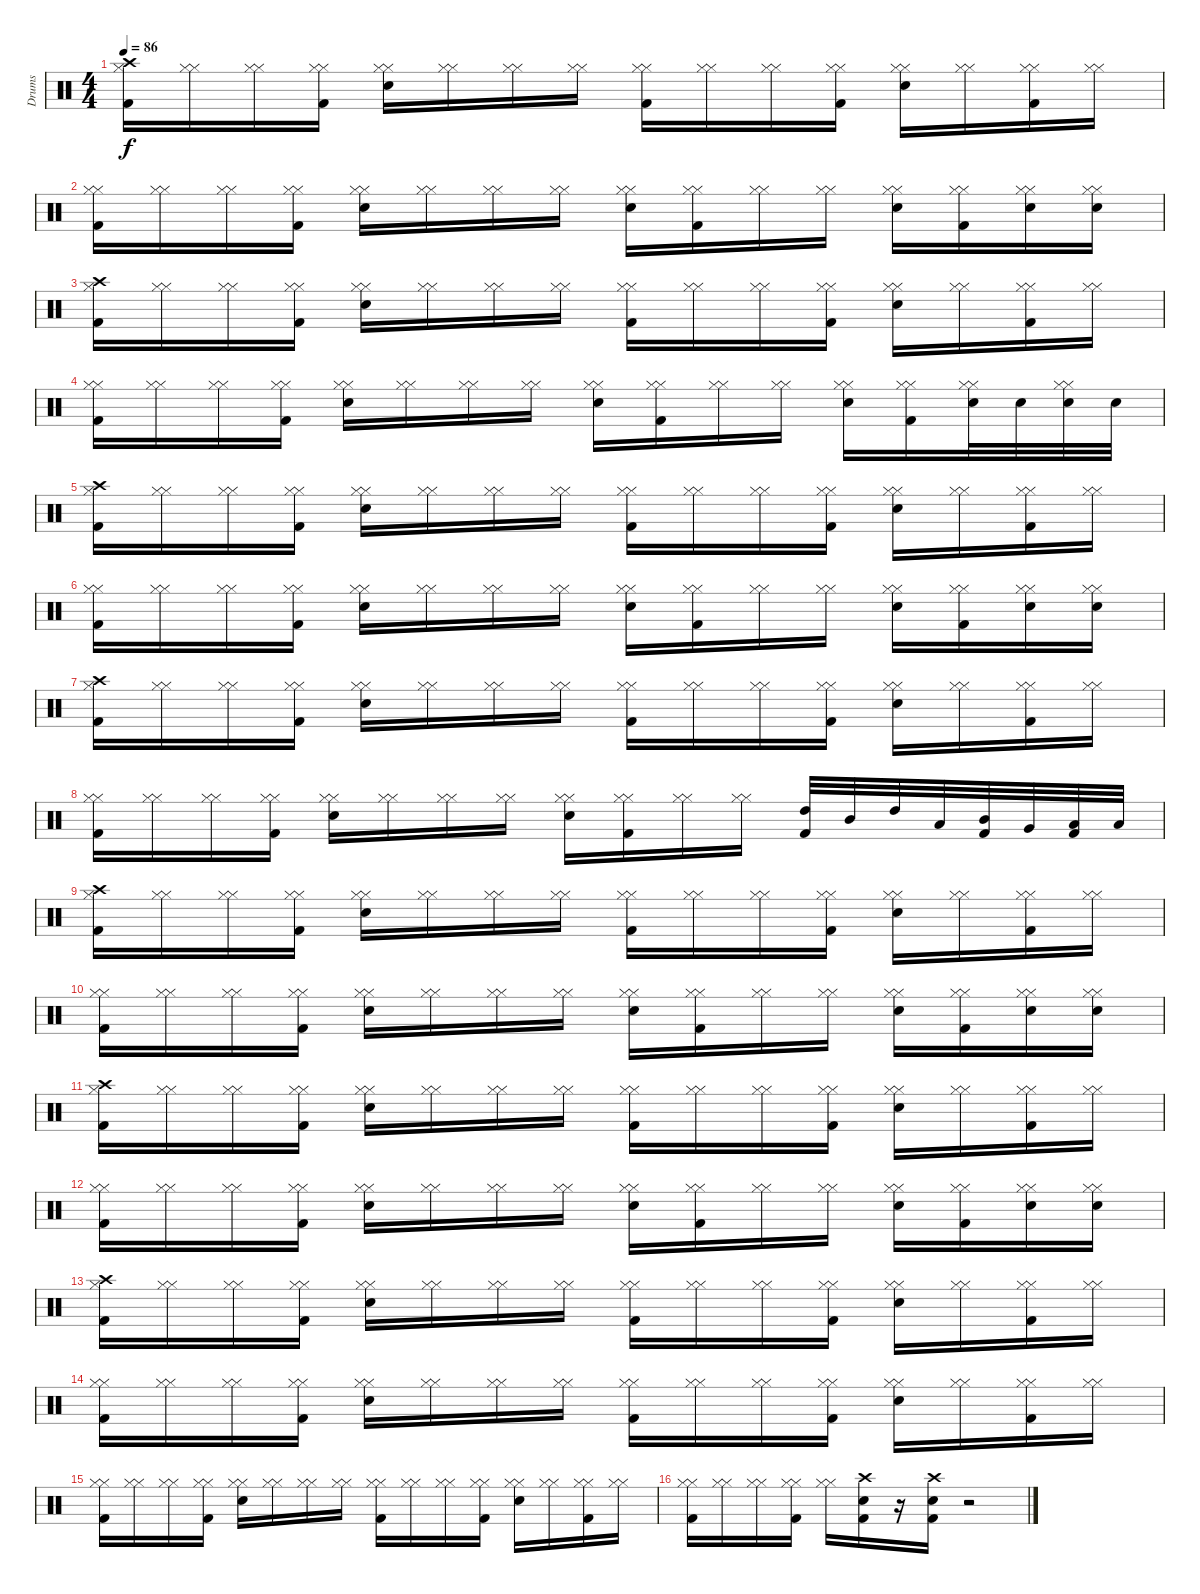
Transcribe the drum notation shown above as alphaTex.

\track ("Drums" "Drums") {instrument percussion}
\staff {score}
\articulation defaults
\ts (4 4)
\tempo 86
\clef neutral
\ks c
("Crash high (hit)" "Hi-Hat (closed)" "Kick (hit) 2").16{dy f} ("Hi-Hat (closed)" "Hi-Hat (closed)").16 ("Hi-Hat (closed)" "Hi-Hat (closed)").16 ("Hi-Hat (closed)" "Hi-Hat (closed)" "Kick (hit) 2").16 ("Hi-Hat (closed)" "Hi-Hat (closed)" "Electric Snare (hit)").16 ("Hi-Hat (closed)" "Hi-Hat (closed)").16 ("Hi-Hat (closed)" "Hi-Hat (closed)").16 ("Hi-Hat (closed)" "Hi-Hat (closed)").16 ("Hi-Hat (closed)" "Hi-Hat (closed)" "Kick (hit) 2").16 ("Hi-Hat (closed)" "Hi-Hat (closed)").16 ("Hi-Hat (closed)" "Hi-Hat (closed)").16 ("Hi-Hat (closed)" "Hi-Hat (closed)" "Kick (hit) 2").16 ("Hi-Hat (closed)" "Hi-Hat (closed)" "Electric Snare (hit)").16 ("Hi-Hat (closed)" "Hi-Hat (closed)").16 ("Hi-Hat (closed)" "Hi-Hat (closed)" "Kick (hit) 2").16 ("Hi-Hat (closed)" "Hi-Hat (closed)").16 |
("Hi-Hat (closed)" "Hi-Hat (closed)" "Kick (hit) 2").16 ("Hi-Hat (closed)" "Hi-Hat (closed)").16 ("Hi-Hat (closed)" "Hi-Hat (closed)").16 ("Hi-Hat (closed)" "Hi-Hat (closed)" "Kick (hit) 2").16 ("Hi-Hat (closed)" "Hi-Hat (closed)" "Electric Snare (hit)").16 ("Hi-Hat (closed)" "Hi-Hat (closed)").16 ("Hi-Hat (closed)" "Hi-Hat (closed)").16 ("Hi-Hat (closed)" "Hi-Hat (closed)").16 ("Hi-Hat (closed)" "Hi-Hat (closed)" "Electric Snare (hit)").16 ("Hi-Hat (closed)" "Hi-Hat (closed)" "Kick (hit) 2").16 ("Hi-Hat (closed)" "Hi-Hat (closed)").16 ("Hi-Hat (closed)" "Hi-Hat (closed)").16 ("Hi-Hat (closed)" "Hi-Hat (closed)" "Electric Snare (hit)").16 ("Hi-Hat (closed)" "Hi-Hat (closed)" "Kick (hit) 2").16 ("Hi-Hat (closed)" "Hi-Hat (closed)" "Electric Snare (hit)").16 ("Hi-Hat (closed)" "Hi-Hat (closed)" "Electric Snare (hit)").16 |
("Crash high (hit)" "Hi-Hat (closed)" "Kick (hit) 2").16 ("Hi-Hat (closed)" "Hi-Hat (closed)").16 ("Hi-Hat (closed)" "Hi-Hat (closed)").16 ("Hi-Hat (closed)" "Hi-Hat (closed)" "Kick (hit) 2").16 ("Hi-Hat (closed)" "Hi-Hat (closed)" "Electric Snare (hit)").16 ("Hi-Hat (closed)" "Hi-Hat (closed)").16 ("Hi-Hat (closed)" "Hi-Hat (closed)").16 ("Hi-Hat (closed)" "Hi-Hat (closed)").16 ("Hi-Hat (closed)" "Hi-Hat (closed)" "Kick (hit) 2").16 ("Hi-Hat (closed)" "Hi-Hat (closed)").16 ("Hi-Hat (closed)" "Hi-Hat (closed)").16 ("Hi-Hat (closed)" "Hi-Hat (closed)" "Kick (hit) 2").16 ("Hi-Hat (closed)" "Hi-Hat (closed)" "Electric Snare (hit)").16 ("Hi-Hat (closed)" "Hi-Hat (closed)").16 ("Hi-Hat (closed)" "Hi-Hat (closed)" "Kick (hit) 2").16 ("Hi-Hat (closed)" "Hi-Hat (closed)").16 |
("Hi-Hat (closed)" "Hi-Hat (closed)" "Kick (hit) 2").16 ("Hi-Hat (closed)" "Hi-Hat (closed)").16 ("Hi-Hat (closed)" "Hi-Hat (closed)").16 ("Hi-Hat (closed)" "Hi-Hat (closed)" "Kick (hit) 2").16 ("Hi-Hat (closed)" "Hi-Hat (closed)" "Electric Snare (hit)").16 ("Hi-Hat (closed)" "Hi-Hat (closed)").16 ("Hi-Hat (closed)" "Hi-Hat (closed)").16 ("Hi-Hat (closed)" "Hi-Hat (closed)").16 ("Hi-Hat (closed)" "Hi-Hat (closed)" "Electric Snare (hit)").16 ("Hi-Hat (closed)" "Hi-Hat (closed)" "Kick (hit) 2").16 ("Hi-Hat (closed)" "Hi-Hat (closed)").16 ("Hi-Hat (closed)" "Hi-Hat (closed)").16 ("Hi-Hat (closed)" "Hi-Hat (closed)" "Electric Snare (hit)").16 ("Hi-Hat (closed)" "Hi-Hat (closed)" "Kick (hit) 2").16 ("Hi-Hat (closed)" "Hi-Hat (closed)" "Electric Snare (hit)").32 "Electric Snare (hit)".32 ("Hi-Hat (closed)" "Hi-Hat (closed)" "Electric Snare (hit)").32 "Electric Snare (hit)".32 |
("Crash high (hit)" "Hi-Hat (closed)" "Kick (hit) 2").16 ("Hi-Hat (closed)" "Hi-Hat (closed)").16 ("Hi-Hat (closed)" "Hi-Hat (closed)").16 ("Hi-Hat (closed)" "Hi-Hat (closed)" "Kick (hit) 2").16 ("Hi-Hat (closed)" "Hi-Hat (closed)" "Electric Snare (hit)").16 ("Hi-Hat (closed)" "Hi-Hat (closed)").16 ("Hi-Hat (closed)" "Hi-Hat (closed)").16 ("Hi-Hat (closed)" "Hi-Hat (closed)").16 ("Hi-Hat (closed)" "Hi-Hat (closed)" "Kick (hit) 2").16 ("Hi-Hat (closed)" "Hi-Hat (closed)").16 ("Hi-Hat (closed)" "Hi-Hat (closed)").16 ("Hi-Hat (closed)" "Hi-Hat (closed)" "Kick (hit) 2").16 ("Hi-Hat (closed)" "Hi-Hat (closed)" "Electric Snare (hit)").16 ("Hi-Hat (closed)" "Hi-Hat (closed)").16 ("Hi-Hat (closed)" "Hi-Hat (closed)" "Kick (hit) 2").16 ("Hi-Hat (closed)" "Hi-Hat (closed)").16 |
("Hi-Hat (closed)" "Hi-Hat (closed)" "Kick (hit) 2").16 ("Hi-Hat (closed)" "Hi-Hat (closed)").16 ("Hi-Hat (closed)" "Hi-Hat (closed)").16 ("Hi-Hat (closed)" "Hi-Hat (closed)" "Kick (hit) 2").16 ("Hi-Hat (closed)" "Hi-Hat (closed)" "Electric Snare (hit)").16 ("Hi-Hat (closed)" "Hi-Hat (closed)").16 ("Hi-Hat (closed)" "Hi-Hat (closed)").16 ("Hi-Hat (closed)" "Hi-Hat (closed)").16 ("Hi-Hat (closed)" "Hi-Hat (closed)" "Electric Snare (hit)").16 ("Hi-Hat (closed)" "Hi-Hat (closed)" "Kick (hit) 2").16 ("Hi-Hat (closed)" "Hi-Hat (closed)").16 ("Hi-Hat (closed)" "Hi-Hat (closed)").16 ("Hi-Hat (closed)" "Hi-Hat (closed)" "Electric Snare (hit)").16 ("Hi-Hat (closed)" "Hi-Hat (closed)" "Kick (hit) 2").16 ("Hi-Hat (closed)" "Hi-Hat (closed)" "Electric Snare (hit)").16 ("Hi-Hat (closed)" "Hi-Hat (closed)" "Electric Snare (hit)").16 |
("Crash high (hit)" "Hi-Hat (closed)" "Kick (hit) 2").16 ("Hi-Hat (closed)" "Hi-Hat (closed)").16 ("Hi-Hat (closed)" "Hi-Hat (closed)").16 ("Hi-Hat (closed)" "Hi-Hat (closed)" "Kick (hit) 2").16 ("Hi-Hat (closed)" "Hi-Hat (closed)" "Electric Snare (hit)").16 ("Hi-Hat (closed)" "Hi-Hat (closed)").16 ("Hi-Hat (closed)" "Hi-Hat (closed)").16 ("Hi-Hat (closed)" "Hi-Hat (closed)").16 ("Hi-Hat (closed)" "Hi-Hat (closed)" "Kick (hit) 2").16 ("Hi-Hat (closed)" "Hi-Hat (closed)").16 ("Hi-Hat (closed)" "Hi-Hat (closed)").16 ("Hi-Hat (closed)" "Hi-Hat (closed)" "Kick (hit) 2").16 ("Hi-Hat (closed)" "Hi-Hat (closed)" "Electric Snare (hit)").16 ("Hi-Hat (closed)" "Hi-Hat (closed)").16 ("Hi-Hat (closed)" "Hi-Hat (closed)" "Kick (hit) 2").16 ("Hi-Hat (closed)" "Hi-Hat (closed)").16 |
("Hi-Hat (closed)" "Hi-Hat (closed)" "Kick (hit) 2").16 ("Hi-Hat (closed)" "Hi-Hat (closed)").16 ("Hi-Hat (closed)" "Hi-Hat (closed)").16 ("Hi-Hat (closed)" "Hi-Hat (closed)" "Kick (hit) 2").16 ("Hi-Hat (closed)" "Hi-Hat (closed)" "Electric Snare (hit)").16 ("Hi-Hat (closed)" "Hi-Hat (closed)").16 ("Hi-Hat (closed)" "Hi-Hat (closed)").16 ("Hi-Hat (closed)" "Hi-Hat (closed)").16 ("Hi-Hat (closed)" "Hi-Hat (closed)" "Electric Snare (hit)").16 ("Hi-Hat (closed)" "Hi-Hat (closed)" "Kick (hit) 2").16 ("Hi-Hat (closed)" "Hi-Hat (closed)").16 ("Hi-Hat (closed)" "Hi-Hat (closed)").16 ("High Tom (hit)" "Kick (hit) 2").32 "Mid Tom (hit)".32 "High Tom (hit)".32 "Low Tom (hit)".32 ("Mid Tom (hit)" "Kick (hit) 2").32 "Very Low Tom (hit)".32 ("Low Tom (hit)" "Kick (hit) 2").32 "Low Floor Tom (hit)".32 |
("Crash high (hit)" "Hi-Hat (closed)" "Kick (hit) 2").16 ("Hi-Hat (closed)" "Hi-Hat (closed)").16 ("Hi-Hat (closed)" "Hi-Hat (closed)").16 ("Hi-Hat (closed)" "Hi-Hat (closed)" "Kick (hit) 2").16 ("Hi-Hat (closed)" "Hi-Hat (closed)" "Electric Snare (hit)").16 ("Hi-Hat (closed)" "Hi-Hat (closed)").16 ("Hi-Hat (closed)" "Hi-Hat (closed)").16 ("Hi-Hat (closed)" "Hi-Hat (closed)").16 ("Hi-Hat (closed)" "Hi-Hat (closed)" "Kick (hit) 2").16 ("Hi-Hat (closed)" "Hi-Hat (closed)").16 ("Hi-Hat (closed)" "Hi-Hat (closed)").16 ("Hi-Hat (closed)" "Hi-Hat (closed)" "Kick (hit) 2").16 ("Hi-Hat (closed)" "Hi-Hat (closed)" "Electric Snare (hit)").16 ("Hi-Hat (closed)" "Hi-Hat (closed)").16 ("Hi-Hat (closed)" "Hi-Hat (closed)" "Kick (hit) 2").16 ("Hi-Hat (closed)" "Hi-Hat (closed)").16 |
("Hi-Hat (closed)" "Hi-Hat (closed)" "Kick (hit) 2").16 ("Hi-Hat (closed)" "Hi-Hat (closed)").16 ("Hi-Hat (closed)" "Hi-Hat (closed)").16 ("Hi-Hat (closed)" "Hi-Hat (closed)" "Kick (hit) 2").16 ("Hi-Hat (closed)" "Hi-Hat (closed)" "Electric Snare (hit)").16 ("Hi-Hat (closed)" "Hi-Hat (closed)").16 ("Hi-Hat (closed)" "Hi-Hat (closed)").16 ("Hi-Hat (closed)" "Hi-Hat (closed)").16 ("Hi-Hat (closed)" "Hi-Hat (closed)" "Electric Snare (hit)").16 ("Hi-Hat (closed)" "Hi-Hat (closed)" "Kick (hit) 2").16 ("Hi-Hat (closed)" "Hi-Hat (closed)").16 ("Hi-Hat (closed)" "Hi-Hat (closed)").16 ("Hi-Hat (closed)" "Hi-Hat (closed)" "Electric Snare (hit)").16 ("Hi-Hat (closed)" "Hi-Hat (closed)" "Kick (hit) 2").16 ("Hi-Hat (closed)" "Hi-Hat (closed)" "Electric Snare (hit)").16 ("Hi-Hat (closed)" "Hi-Hat (closed)" "Electric Snare (hit)").16 |
("Crash high (hit)" "Hi-Hat (closed)" "Kick (hit) 2").16 ("Hi-Hat (closed)" "Hi-Hat (closed)").16 ("Hi-Hat (closed)" "Hi-Hat (closed)").16 ("Hi-Hat (closed)" "Hi-Hat (closed)" "Kick (hit) 2").16 ("Hi-Hat (closed)" "Hi-Hat (closed)" "Electric Snare (hit)").16 ("Hi-Hat (closed)" "Hi-Hat (closed)").16 ("Hi-Hat (closed)" "Hi-Hat (closed)").16 ("Hi-Hat (closed)" "Hi-Hat (closed)").16 ("Hi-Hat (closed)" "Hi-Hat (closed)" "Kick (hit) 2").16 ("Hi-Hat (closed)" "Hi-Hat (closed)").16 ("Hi-Hat (closed)" "Hi-Hat (closed)").16 ("Hi-Hat (closed)" "Hi-Hat (closed)" "Kick (hit) 2").16 ("Hi-Hat (closed)" "Hi-Hat (closed)" "Electric Snare (hit)").16 ("Hi-Hat (closed)" "Hi-Hat (closed)").16 ("Hi-Hat (closed)" "Hi-Hat (closed)" "Kick (hit) 2").16 ("Hi-Hat (closed)" "Hi-Hat (closed)").16 |
("Hi-Hat (closed)" "Hi-Hat (closed)" "Kick (hit) 2").16 ("Hi-Hat (closed)" "Hi-Hat (closed)").16 ("Hi-Hat (closed)" "Hi-Hat (closed)").16 ("Hi-Hat (closed)" "Hi-Hat (closed)" "Kick (hit) 2").16 ("Hi-Hat (closed)" "Hi-Hat (closed)" "Electric Snare (hit)").16 ("Hi-Hat (closed)" "Hi-Hat (closed)").16 ("Hi-Hat (closed)" "Hi-Hat (closed)").16 ("Hi-Hat (closed)" "Hi-Hat (closed)").16 ("Hi-Hat (closed)" "Hi-Hat (closed)" "Electric Snare (hit)").16 ("Hi-Hat (closed)" "Hi-Hat (closed)" "Kick (hit) 2").16 ("Hi-Hat (closed)" "Hi-Hat (closed)").16 ("Hi-Hat (closed)" "Hi-Hat (closed)").16 ("Hi-Hat (closed)" "Hi-Hat (closed)" "Electric Snare (hit)").16 ("Hi-Hat (closed)" "Hi-Hat (closed)" "Kick (hit) 2").16 ("Hi-Hat (closed)" "Hi-Hat (closed)" "Electric Snare (hit)").16 ("Hi-Hat (closed)" "Hi-Hat (closed)" "Electric Snare (hit)").16 |
("Crash high (hit)" "Hi-Hat (closed)" "Kick (hit) 2").16 ("Hi-Hat (closed)" "Hi-Hat (closed)").16 ("Hi-Hat (closed)" "Hi-Hat (closed)").16 ("Hi-Hat (closed)" "Hi-Hat (closed)" "Kick (hit) 2").16 ("Hi-Hat (closed)" "Hi-Hat (closed)" "Electric Snare (hit)").16 ("Hi-Hat (closed)" "Hi-Hat (closed)").16 ("Hi-Hat (closed)" "Hi-Hat (closed)").16 ("Hi-Hat (closed)" "Hi-Hat (closed)").16 ("Hi-Hat (closed)" "Hi-Hat (closed)" "Kick (hit) 2").16 ("Hi-Hat (closed)" "Hi-Hat (closed)").16 ("Hi-Hat (closed)" "Hi-Hat (closed)").16 ("Hi-Hat (closed)" "Hi-Hat (closed)" "Kick (hit) 2").16 ("Hi-Hat (closed)" "Hi-Hat (closed)" "Electric Snare (hit)").16 ("Hi-Hat (closed)" "Hi-Hat (closed)").16 ("Hi-Hat (closed)" "Hi-Hat (closed)" "Kick (hit) 2").16 ("Hi-Hat (closed)" "Hi-Hat (closed)").16 |
("Hi-Hat (closed)" "Hi-Hat (closed)" "Kick (hit) 2").16 ("Hi-Hat (closed)" "Hi-Hat (closed)").16 ("Hi-Hat (closed)" "Hi-Hat (closed)").16 ("Hi-Hat (closed)" "Hi-Hat (closed)" "Kick (hit) 2").16 ("Hi-Hat (closed)" "Hi-Hat (closed)" "Electric Snare (hit)").16 ("Hi-Hat (closed)" "Hi-Hat (closed)").16 ("Hi-Hat (closed)" "Hi-Hat (closed)").16 ("Hi-Hat (closed)" "Hi-Hat (closed)").16 ("Hi-Hat (closed)" "Hi-Hat (closed)" "Kick (hit) 2").16 ("Hi-Hat (closed)" "Hi-Hat (closed)").16 ("Hi-Hat (closed)" "Hi-Hat (closed)").16 ("Hi-Hat (closed)" "Hi-Hat (closed)" "Kick (hit) 2").16 ("Hi-Hat (closed)" "Hi-Hat (closed)" "Electric Snare (hit)").16 ("Hi-Hat (closed)" "Hi-Hat (closed)").16 ("Hi-Hat (closed)" "Hi-Hat (closed)" "Kick (hit) 2").16 ("Hi-Hat (closed)" "Hi-Hat (closed)").16 |
("Hi-Hat (closed)" "Hi-Hat (closed)" "Kick (hit) 2").16 ("Hi-Hat (closed)" "Hi-Hat (closed)").16 ("Hi-Hat (closed)" "Hi-Hat (closed)").16 ("Hi-Hat (closed)" "Hi-Hat (closed)" "Kick (hit) 2").16 ("Hi-Hat (closed)" "Hi-Hat (closed)" "Electric Snare (hit)").16 ("Hi-Hat (closed)" "Hi-Hat (closed)").16 ("Hi-Hat (closed)" "Hi-Hat (closed)").16 ("Hi-Hat (closed)" "Hi-Hat (closed)").16 ("Hi-Hat (closed)" "Hi-Hat (closed)" "Kick (hit) 2").16 ("Hi-Hat (closed)" "Hi-Hat (closed)").16 ("Hi-Hat (closed)" "Hi-Hat (closed)").16 ("Hi-Hat (closed)" "Hi-Hat (closed)" "Kick (hit) 2").16 ("Hi-Hat (closed)" "Hi-Hat (closed)" "Electric Snare (hit)").16 ("Hi-Hat (closed)" "Hi-Hat (closed)").16 ("Hi-Hat (closed)" "Hi-Hat (closed)" "Kick (hit) 2").16 ("Hi-Hat (closed)" "Hi-Hat (closed)").16 |
("Hi-Hat (closed)" "Hi-Hat (closed)" "Kick (hit) 2").16 ("Hi-Hat (closed)" "Hi-Hat (closed)").16 ("Hi-Hat (closed)" "Hi-Hat (closed)").16 ("Hi-Hat (closed)" "Hi-Hat (closed)" "Kick (hit) 2").16 ("Hi-Hat (closed)" "Hi-Hat (closed)").16 ("Crash high (hit)" "Electric Snare (hit)" "Kick (hit) 2").16 r.16 ("Crash high (hit)" "Electric Snare (hit)" "Kick (hit) 2").16 r.2
